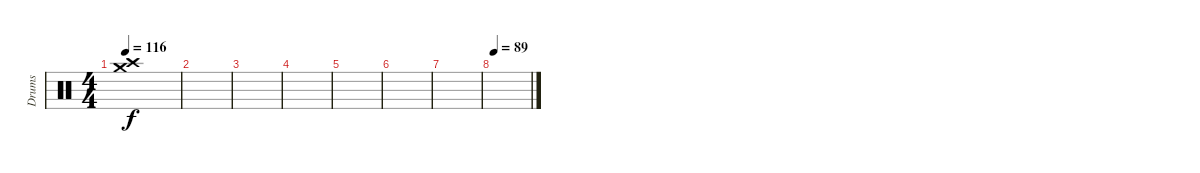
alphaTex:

\track ("Drums" "Drums") {instrument percussion}
\staff {score}
\articulation defaults
\ts (4 4)
\tempo 116
\clef neutral
\ks c
("Crash high (hit)" "Crash medium (hit)").1{dy f} |
|
|
|
|
|
|
\tempo 89
